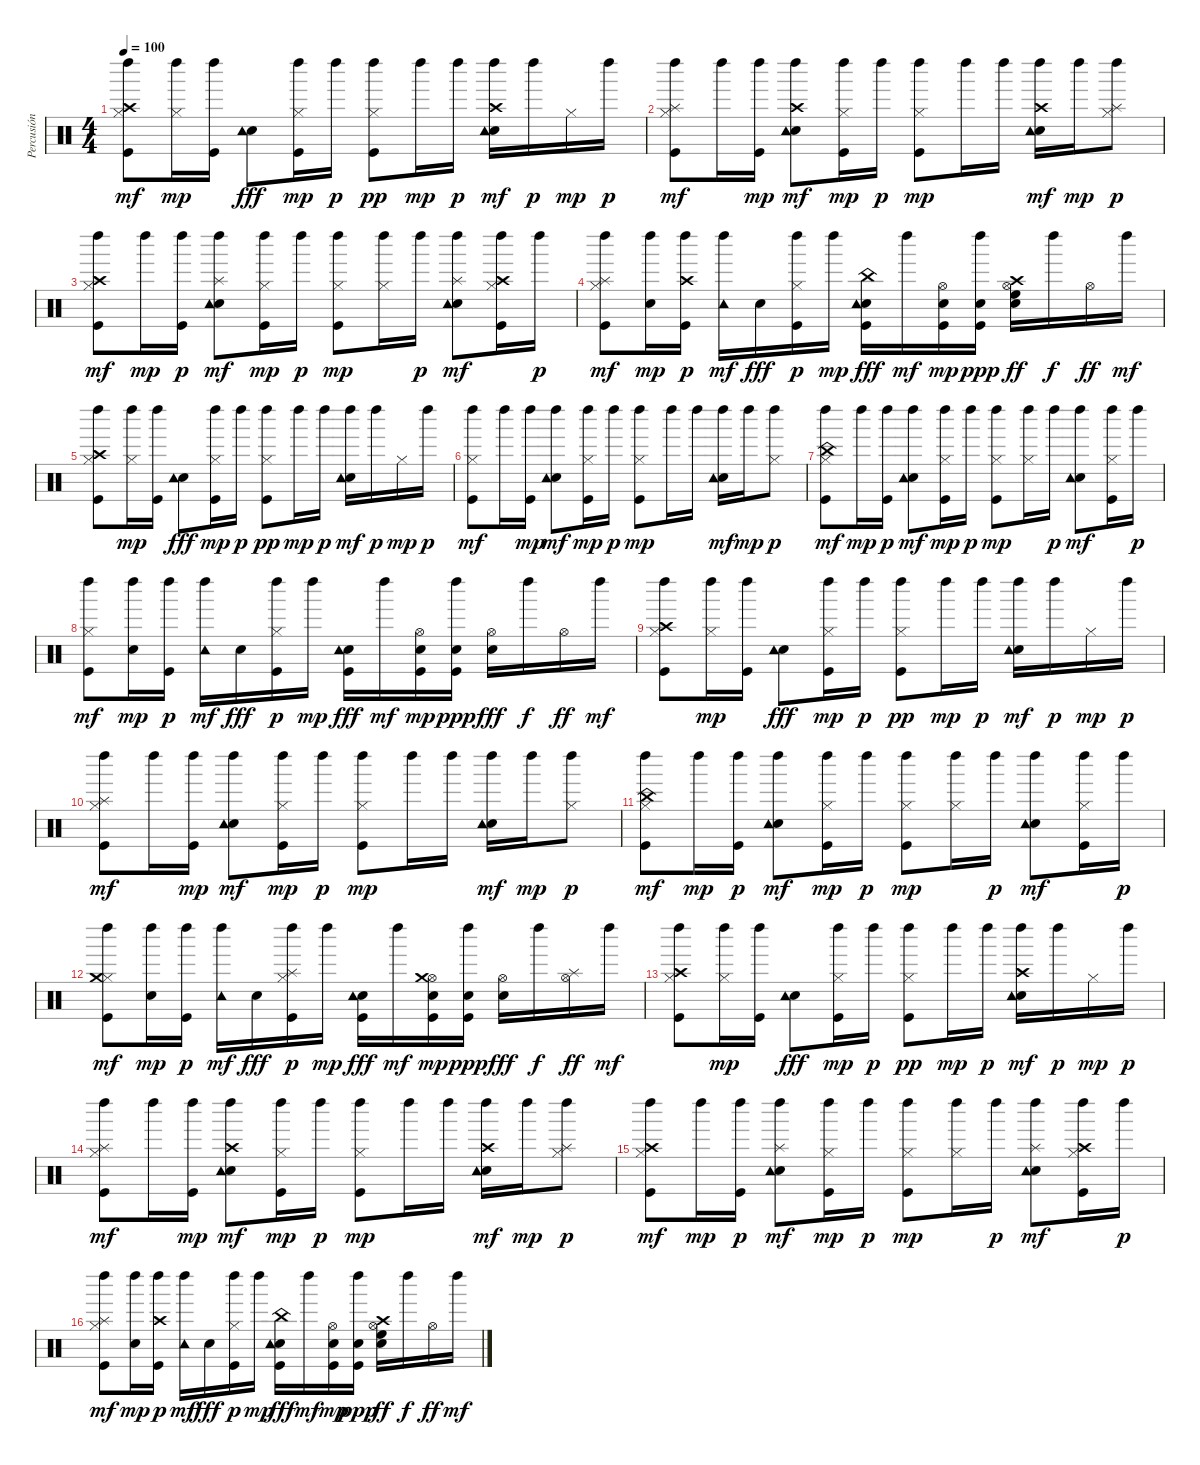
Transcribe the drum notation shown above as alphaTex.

\track ("Percusión" "Percusión") {instrument percussion}
\staff {score}
\articulation defaults
\ts (4 4)
\tempo 100
\clef neutral
\ks c
("Kick (hit)" "Hi-Hat (closed)" "Crash high (hit)" "Left Maraca (hit)").8{dy mf} ("Hi-Hat (closed)" "Left Maraca (hit)").16{dy mp} ("Kick (hit)" "Left Maraca (hit)").16 ("Snare (hit) 2" "Tambourine (hit)").8{dy fff} ("Kick (hit)" "Hi-Hat (closed)" "Left Maraca (hit)").16{dy mp} "Left Maraca (hit)".16{dy p} ("Kick (hit)" "Hi-Hat (closed)" "Left Maraca (hit)").8{dy pp} "Left Maraca (hit)".16{dy mp} "Left Maraca (hit)".16{dy p} ("Snare (hit) 2" "Crash high (hit)" "Tambourine (hit)" "Left Maraca (hit)").16{dy mf} "Left Maraca (hit)".16{dy p} "Hi-Hat (closed)".16{dy mp} "Left Maraca (hit)".16{dy p} |
("Kick (hit)" "Hi-Hat (closed)" "Splash (hit)" "Left Maraca (hit)").8{dy mf} "Left Maraca (hit)".16 ("Kick (hit)" "Left Maraca (hit)").16{dy mp} ("Snare (hit) 2" "Crash high (hit)" "Tambourine (hit)" "Left Maraca (hit)").8{dy mf} ("Kick (hit)" "Hi-Hat (closed)" "Left Maraca (hit)").16{dy mp} "Left Maraca (hit)".16{dy p} ("Kick (hit)" "Hi-Hat (closed)" "Left Maraca (hit)").8{dy mp} "Left Maraca (hit)".16 "Left Maraca (hit)".16 ("Snare (hit) 2" "Crash high (hit)" "Tambourine (hit)" "Left Maraca (hit)").16{dy mf} "Left Maraca (hit)".16{dy mp} ("Hi-Hat (closed)" "Splash (hit)" "Left Maraca (hit)").8{dy p} |
("Kick (hit)" "Hi-Hat (closed)" "Crash high (hit)" "Left Maraca (hit)").8{dy mf} "Left Maraca (hit)".16{dy mp} ("Kick (hit)" "Left Maraca (hit)").16{dy p} ("Snare (hit) 2" "Tambourine (hit)" "Splash (hit)" "Left Maraca (hit)").8{dy mf} ("Kick (hit)" "Hi-Hat (closed)" "Left Maraca (hit)").16{dy mp} "Left Maraca (hit)".16{dy p} ("Kick (hit)" "Hi-Hat (closed)" "Left Maraca (hit)").8{dy mp} ("Hi-Hat (closed)" "Left Maraca (hit)").16 "Left Maraca (hit)".16{dy p} ("Snare (hit) 2" "Tambourine (hit)" "Splash (hit)" "Left Maraca (hit)").8{dy mf} ("Kick (hit)" "Hi-Hat (closed)" "Crash high (hit)" "Left Maraca (hit)").16 "Left Maraca (hit)".16{dy p} |
("Kick (hit)" "Hi-Hat (closed)" "Splash (hit)" "Left Maraca (hit)").8{dy mf} ("Snare (hit) 2" "Left Maraca (hit)").16{dy mp} ("Kick (hit)" "Crash high (hit)" "Left Maraca (hit)").16{dy p} ("Tambourine (hit)" "Left Maraca (hit)").16{dy mf} "Snare (hit) 2".16{dy fff} ("Kick (hit)" "Hi-Hat (closed)" "Left Maraca (hit)").16{dy p} "Left Maraca (hit)".16{dy mp} ("Kick (hit)" "Snare (hit) 2" "China (hit)" "Tambourine (hit)").16{dy fff} "Left Maraca (hit)".16{dy mf} ("Kick (hit)" "Snare (hit) 2" "Hi-Hat (open)").16{dy mp} ("Kick (hit)" "Snare (hit) 2" "Left Maraca (hit)").16{dy ppp} ("Snare (hit) 2" "Hi-Hat (open)" "Crash high (hit)" "High Floor Tom (hit)").16{dy ff} "Left Maraca (hit)".16{dy f} "Hi-Hat (open)".16{dy ff} "Left Maraca (hit)".16{dy mf} |
("Kick (hit)" "Hi-Hat (closed)" "Crash high (hit)" "Left Maraca (hit)").8 ("Hi-Hat (closed)" "Left Maraca (hit)").16{dy mp} ("Kick (hit)" "Left Maraca (hit)").16 ("Snare (hit) 2" "Tambourine (hit)").8{dy fff} ("Kick (hit)" "Hi-Hat (closed)" "Left Maraca (hit)").16{dy mp} "Left Maraca (hit)".16{dy p} ("Kick (hit)" "Hi-Hat (closed)" "Left Maraca (hit)").8{dy pp} "Left Maraca (hit)".16{dy mp} "Left Maraca (hit)".16{dy p} ("Snare (hit) 2" "Tambourine (hit)" "Left Maraca (hit)").16{dy mf} "Left Maraca (hit)".16{dy p} "Hi-Hat (closed)".16{dy mp} "Left Maraca (hit)".16{dy p} |
("Kick (hit)" "Hi-Hat (closed)" "Left Maraca (hit)").8{dy mf} "Left Maraca (hit)".16 ("Kick (hit)" "Left Maraca (hit)").16{dy mp} ("Snare (hit) 2" "Tambourine (hit)" "Left Maraca (hit)").8{dy mf} ("Kick (hit)" "Hi-Hat (closed)" "Left Maraca (hit)").16{dy mp} "Left Maraca (hit)".16{dy p} ("Kick (hit)" "Hi-Hat (closed)" "Left Maraca (hit)").8{dy mp} "Left Maraca (hit)".16 "Left Maraca (hit)".16 ("Snare (hit) 2" "Tambourine (hit)" "Left Maraca (hit)").16{dy mf} "Left Maraca (hit)".16{dy mp} ("Hi-Hat (closed)" "Left Maraca (hit)").8{dy p} |
("Kick (hit)" "Hi-Hat (closed)" "China (hit)" "Left Maraca (hit)").8{dy mf} "Left Maraca (hit)".16{dy mp} ("Kick (hit)" "Left Maraca (hit)").16{dy p} ("Snare (hit) 2" "Tambourine (hit)" "Left Maraca (hit)").8{dy mf} ("Kick (hit)" "Hi-Hat (closed)" "Left Maraca (hit)").16{dy mp} "Left Maraca (hit)".16{dy p} ("Kick (hit)" "Hi-Hat (closed)" "Left Maraca (hit)").8{dy mp} ("Hi-Hat (closed)" "Left Maraca (hit)").16 "Left Maraca (hit)".16{dy p} ("Snare (hit) 2" "Tambourine (hit)" "Left Maraca (hit)").8{dy mf} ("Kick (hit)" "Hi-Hat (closed)" "Left Maraca (hit)").16 "Left Maraca (hit)".16{dy p} |
("Kick (hit)" "Hi-Hat (closed)" "Left Maraca (hit)").8{dy mf} ("Snare (hit) 2" "Left Maraca (hit)").16{dy mp} ("Kick (hit)" "Left Maraca (hit)").16{dy p} ("Tambourine (hit)" "Left Maraca (hit)").16{dy mf} "Snare (hit) 2".16{dy fff} ("Kick (hit)" "Hi-Hat (closed)" "Left Maraca (hit)").16{dy p} "Left Maraca (hit)".16{dy mp} ("Kick (hit)" "Snare (hit) 2" "Tambourine (hit)").16{dy fff} "Left Maraca (hit)".16{dy mf} ("Kick (hit)" "Snare (hit) 2" "Hi-Hat (open)").16{dy mp} ("Kick (hit)" "Snare (hit) 2" "Left Maraca (hit)").16{dy ppp} ("Snare (hit) 2" "Hi-Hat (open)").16{dy fff} "Left Maraca (hit)".16{dy f} "Hi-Hat (open)".16{dy ff} "Left Maraca (hit)".16{dy mf} |
("Kick (hit)" "Hi-Hat (closed)" "Crash high (hit)" "Left Maraca (hit)").8 ("Hi-Hat (closed)" "Left Maraca (hit)").16{dy mp} ("Kick (hit)" "Left Maraca (hit)").16 ("Snare (hit) 2" "Tambourine (hit)").8{dy fff} ("Kick (hit)" "Hi-Hat (closed)" "Left Maraca (hit)").16{dy mp} "Left Maraca (hit)".16{dy p} ("Kick (hit)" "Hi-Hat (closed)" "Left Maraca (hit)").8{dy pp} "Left Maraca (hit)".16{dy mp} "Left Maraca (hit)".16{dy p} ("Snare (hit) 2" "Tambourine (hit)" "Left Maraca (hit)").16{dy mf} "Left Maraca (hit)".16{dy p} "Hi-Hat (closed)".16{dy mp} "Left Maraca (hit)".16{dy p} |
("Kick (hit)" "Hi-Hat (closed)" "Splash (hit)" "Left Maraca (hit)").8{dy mf} "Left Maraca (hit)".16 ("Kick (hit)" "Left Maraca (hit)").16{dy mp} ("Snare (hit) 2" "Tambourine (hit)" "Left Maraca (hit)").8{dy mf} ("Kick (hit)" "Hi-Hat (closed)" "Left Maraca (hit)").16{dy mp} "Left Maraca (hit)".16{dy p} ("Kick (hit)" "Hi-Hat (closed)" "Left Maraca (hit)").8{dy mp} "Left Maraca (hit)".16 "Left Maraca (hit)".16 ("Snare (hit) 2" "Tambourine (hit)" "Left Maraca (hit)").16{dy mf} "Left Maraca (hit)".16{dy mp} ("Hi-Hat (closed)" "Left Maraca (hit)").8{dy p} |
("Kick (hit)" "Hi-Hat (closed)" "China (hit)" "Left Maraca (hit)").8{dy mf} "Left Maraca (hit)".16{dy mp} ("Kick (hit)" "Left Maraca (hit)").16{dy p} ("Snare (hit) 2" "Tambourine (hit)" "Left Maraca (hit)").8{dy mf} ("Kick (hit)" "Hi-Hat (closed)" "Left Maraca (hit)").16{dy mp} "Left Maraca (hit)".16{dy p} ("Kick (hit)" "Hi-Hat (closed)" "Left Maraca (hit)").8{dy mp} ("Hi-Hat (closed)" "Left Maraca (hit)").16 "Left Maraca (hit)".16{dy p} ("Snare (hit) 2" "Tambourine (hit)" "Left Maraca (hit)").8{dy mf} ("Kick (hit)" "Hi-Hat (closed)" "Left Maraca (hit)").16 "Left Maraca (hit)".16{dy p} |
("Kick (hit)" "Hi-Hat (closed)" "Crash medium (hit)" "Left Maraca (hit)").8{dy mf} ("Snare (hit) 2" "Left Maraca (hit)").16{dy mp} ("Kick (hit)" "Left Maraca (hit)").16{dy p} ("Tambourine (hit)" "Left Maraca (hit)").16{dy mf} "Snare (hit) 2".16{dy fff} ("Kick (hit)" "Hi-Hat (closed)" "Splash (hit)" "Left Maraca (hit)").16{dy p} "Left Maraca (hit)".16{dy mp} ("Kick (hit)" "Snare (hit) 2" "Tambourine (hit)").16{dy fff} "Left Maraca (hit)".16{dy mf} ("Kick (hit)" "Snare (hit) 2" "Hi-Hat (open)" "Crash medium (hit)").16{dy mp} ("Kick (hit)" "Snare (hit) 2" "Left Maraca (hit)").16{dy ppp} ("Snare (hit) 2" "Hi-Hat (open)").16{dy fff} "Left Maraca (hit)".16{dy f} ("Hi-Hat (open)" "Splash (hit)").16{dy ff} "Left Maraca (hit)".16{dy mf} |
("Kick (hit)" "Hi-Hat (closed)" "Crash high (hit)" "Left Maraca (hit)").8 ("Hi-Hat (closed)" "Left Maraca (hit)").16{dy mp} ("Kick (hit)" "Left Maraca (hit)").16 ("Snare (hit) 2" "Tambourine (hit)").8{dy fff} ("Kick (hit)" "Hi-Hat (closed)" "Left Maraca (hit)").16{dy mp} "Left Maraca (hit)".16{dy p} ("Kick (hit)" "Hi-Hat (closed)" "Left Maraca (hit)").8{dy pp} "Left Maraca (hit)".16{dy mp} "Left Maraca (hit)".16{dy p} ("Snare (hit) 2" "Crash high (hit)" "Tambourine (hit)" "Left Maraca (hit)").16{dy mf} "Left Maraca (hit)".16{dy p} "Hi-Hat (closed)".16{dy mp} "Left Maraca (hit)".16{dy p} |
("Kick (hit)" "Hi-Hat (closed)" "Splash (hit)" "Left Maraca (hit)").8{dy mf} "Left Maraca (hit)".16 ("Kick (hit)" "Left Maraca (hit)").16{dy mp} ("Snare (hit) 2" "Crash high (hit)" "Tambourine (hit)" "Left Maraca (hit)").8{dy mf} ("Kick (hit)" "Hi-Hat (closed)" "Left Maraca (hit)").16{dy mp} "Left Maraca (hit)".16{dy p} ("Kick (hit)" "Hi-Hat (closed)" "Left Maraca (hit)").8{dy mp} "Left Maraca (hit)".16 "Left Maraca (hit)".16 ("Snare (hit) 2" "Crash high (hit)" "Tambourine (hit)" "Left Maraca (hit)").16{dy mf} "Left Maraca (hit)".16{dy mp} ("Hi-Hat (closed)" "Splash (hit)" "Left Maraca (hit)").8{dy p} |
("Kick (hit)" "Hi-Hat (closed)" "Crash high (hit)" "Left Maraca (hit)").8{dy mf} "Left Maraca (hit)".16{dy mp} ("Kick (hit)" "Left Maraca (hit)").16{dy p} ("Snare (hit) 2" "Tambourine (hit)" "Splash (hit)" "Left Maraca (hit)").8{dy mf} ("Kick (hit)" "Hi-Hat (closed)" "Left Maraca (hit)").16{dy mp} "Left Maraca (hit)".16{dy p} ("Kick (hit)" "Hi-Hat (closed)" "Left Maraca (hit)").8{dy mp} ("Hi-Hat (closed)" "Left Maraca (hit)").16 "Left Maraca (hit)".16{dy p} ("Snare (hit) 2" "Tambourine (hit)" "Splash (hit)" "Left Maraca (hit)").8{dy mf} ("Kick (hit)" "Hi-Hat (closed)" "Crash high (hit)" "Left Maraca (hit)").16 "Left Maraca (hit)".16{dy p} |
("Kick (hit)" "Hi-Hat (closed)" "Splash (hit)" "Left Maraca (hit)").8{dy mf} ("Snare (hit) 2" "Left Maraca (hit)").16{dy mp} ("Kick (hit)" "Crash high (hit)" "Left Maraca (hit)").16{dy p} ("Tambourine (hit)" "Left Maraca (hit)").16{dy mf} "Snare (hit) 2".16{dy fff} ("Kick (hit)" "Hi-Hat (closed)" "Left Maraca (hit)").16{dy p} "Left Maraca (hit)".16{dy mp} ("Kick (hit)" "Snare (hit) 2" "China (hit)" "Tambourine (hit)").16{dy fff} "Left Maraca (hit)".16{dy mf} ("Kick (hit)" "Snare (hit) 2" "Hi-Hat (open)").16{dy mp} ("Kick (hit)" "Snare (hit) 2" "Left Maraca (hit)").16{dy ppp} ("Snare (hit) 2" "Hi-Hat (open)" "Crash high (hit)" "High Floor Tom (hit)").16{dy ff} "Left Maraca (hit)".16{dy f} "Hi-Hat (open)".16{dy ff} "Left Maraca (hit)".16{dy mf}
